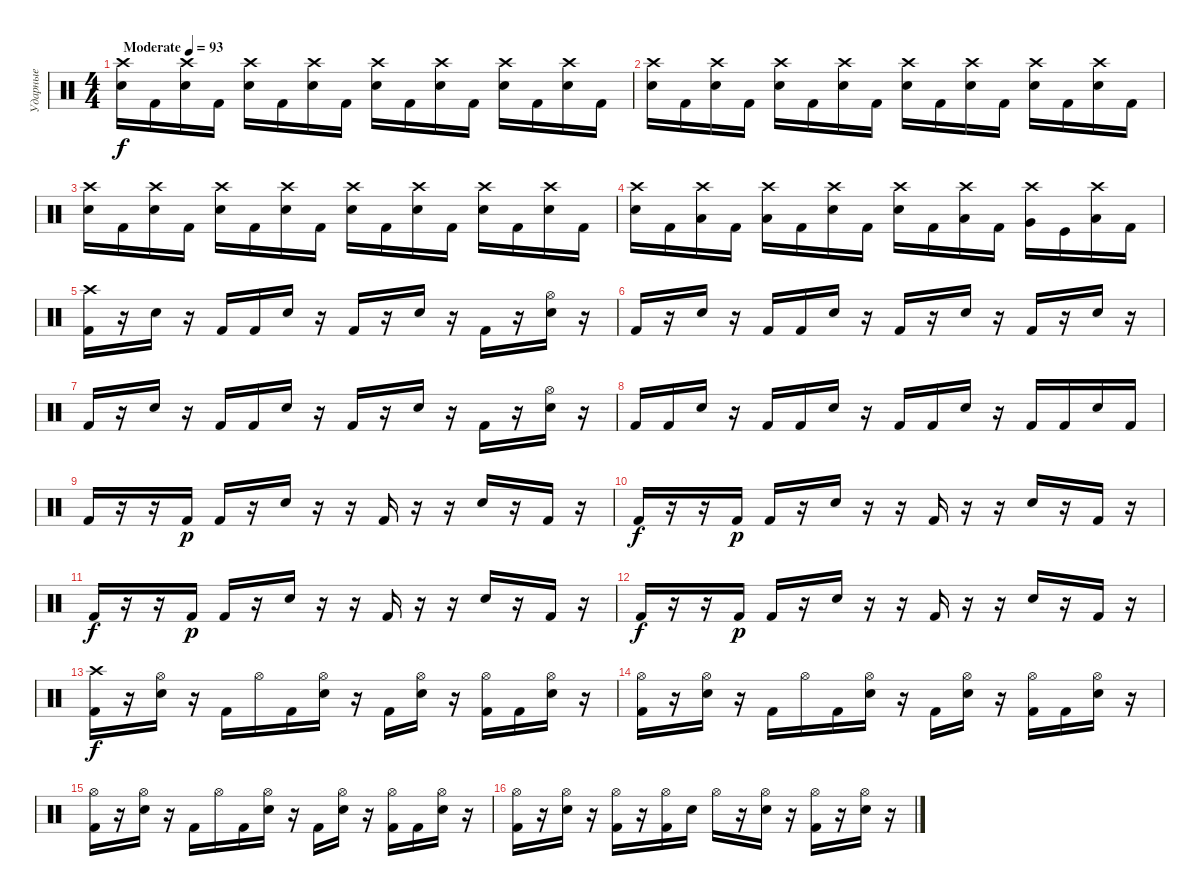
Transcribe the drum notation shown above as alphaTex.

\track ("Ударные" "Ударные") {instrument percussion}
\staff {score}
\articulation defaults
\ts (4 4)
\tempo (93 "Moderate")
\clef neutral
\ks c
("Crash high (hit)" "Snare (hit) 2").16{dy f} "Kick (hit) 2".16 ("Crash high (hit)" "Snare (hit) 2").16 "Kick (hit) 2".16 ("Crash high (hit)" "Snare (hit) 2").16 "Kick (hit) 2".16 ("Crash high (hit)" "Snare (hit) 2").16 "Kick (hit) 2".16 ("Crash high (hit)" "Snare (hit) 2").16 "Kick (hit) 2".16 ("Crash high (hit)" "Snare (hit) 2").16 "Kick (hit) 2".16 ("Crash high (hit)" "Snare (hit) 2").16 "Kick (hit) 2".16 ("Crash high (hit)" "Snare (hit) 2").16 "Kick (hit) 2".16 |
("Crash high (hit)" "Snare (hit) 2").16 "Kick (hit) 2".16 ("Crash high (hit)" "Snare (hit) 2").16 "Kick (hit) 2".16 ("Crash high (hit)" "Snare (hit) 2").16 "Kick (hit) 2".16 ("Crash high (hit)" "Snare (hit) 2").16 "Kick (hit) 2".16 ("Crash high (hit)" "Snare (hit) 2").16 "Kick (hit) 2".16 ("Crash high (hit)" "Snare (hit) 2").16 "Kick (hit) 2".16 ("Crash high (hit)" "Snare (hit) 2").16 "Kick (hit) 2".16 ("Crash high (hit)" "Snare (hit) 2").16 "Kick (hit) 2".16 |
("Crash high (hit)" "Snare (hit) 2").16 "Kick (hit) 2".16 ("Crash high (hit)" "Snare (hit) 2").16 "Kick (hit) 2".16 ("Crash high (hit)" "Snare (hit) 2").16 "Kick (hit) 2".16 ("Crash high (hit)" "Snare (hit) 2").16 "Kick (hit) 2".16 ("Crash high (hit)" "Snare (hit) 2").16 "Kick (hit) 2".16 ("Crash high (hit)" "Snare (hit) 2").16 "Kick (hit) 2".16 ("Crash high (hit)" "Snare (hit) 2").16 "Kick (hit) 2".16 ("Crash high (hit)" "Snare (hit) 2").16 "Kick (hit) 2".16 |
("Crash high (hit)" "Snare (hit) 2").16 "Kick (hit) 2".16 ("Crash high (hit)" "Low Tom (hit)").16 "Kick (hit) 2".16 ("Crash high (hit)" "Low Floor Tom (hit)").16 "Kick (hit) 2".16 ("Crash high (hit)" "Snare (hit) 2").16 "Kick (hit) 2".16 ("Crash high (hit)" "Snare (hit) 2").16 "Kick (hit) 2".16 ("Crash high (hit)" "Low Tom (hit)").16 "Kick (hit) 2".16 ("Crash high (hit)" "Very Low Tom (hit)").16 "Kick (hit)".16 ("Crash high (hit)" "Low Floor Tom (hit)").16 "Kick (hit) 2".16 |
("Crash high (hit)" "Kick (hit) 2").16 r.16 "Snare (hit) 2".16 r.16 "Kick (hit) 2".16 "Kick (hit) 2".16 "Snare (hit) 2".16 r.16 "Kick (hit) 2".16 r.16 "Snare (hit) 2".16 r.16 "Kick (hit) 2".16 r.16 ("Hi-Hat (open)" "Snare (hit) 2").16 r.16 |
"Kick (hit) 2".16 r.16 "Snare (hit) 2".16 r.16 "Kick (hit) 2".16 "Kick (hit) 2".16 "Snare (hit) 2".16 r.16 "Kick (hit) 2".16 r.16 "Snare (hit) 2".16 r.16 "Kick (hit) 2".16 r.16 "Snare (hit) 2".16 r.16 |
"Kick (hit) 2".16 r.16 "Snare (hit) 2".16 r.16 "Kick (hit) 2".16 "Kick (hit) 2".16 "Snare (hit) 2".16 r.16 "Kick (hit) 2".16 r.16 "Snare (hit) 2".16 r.16 "Kick (hit) 2".16 r.16 ("Hi-Hat (open)" "Snare (hit) 2").16 r.16 |
"Kick (hit) 2".16 "Kick (hit) 2".16 "Snare (hit) 2".16 r.16 "Kick (hit) 2".16 "Kick (hit) 2".16 "Snare (hit) 2".16 r.16 "Kick (hit) 2".16 "Kick (hit) 2".16 "Snare (hit) 2".16 r.16 "Kick (hit) 2".16 "Kick (hit) 2".16 "Snare (hit) 2".16 "Kick (hit) 2".16 |
"Kick (hit) 2".16 r.16 r.16 "Kick (hit) 2".16{dy p} "Kick (hit) 2".16 r.16 "Snare (hit) 2".16 r.16 r.16 "Kick (hit) 2".16 r.16 r.16 "Snare (hit) 2".16 r.16 "Kick (hit) 2".16 r.16 |
"Kick (hit) 2".16{dy f} r.16 r.16 "Kick (hit) 2".16{dy p} "Kick (hit) 2".16 r.16 "Snare (hit) 2".16 r.16 r.16 "Kick (hit) 2".16 r.16 r.16 "Snare (hit) 2".16 r.16 "Kick (hit) 2".16 r.16 |
"Kick (hit) 2".16{dy f} r.16 r.16 "Kick (hit) 2".16{dy p} "Kick (hit) 2".16 r.16 "Snare (hit) 2".16 r.16 r.16 "Kick (hit) 2".16 r.16 r.16 "Snare (hit) 2".16 r.16 "Kick (hit) 2".16 r.16 |
"Kick (hit) 2".16{dy f} r.16 r.16 "Kick (hit) 2".16{dy p} "Kick (hit) 2".16 r.16 "Snare (hit) 2".16 r.16 r.16 "Kick (hit) 2".16 r.16 r.16 "Snare (hit) 2".16 r.16 "Kick (hit) 2".16 r.16 |
("Crash high (hit)" "Kick (hit) 2").16{dy f} r.16 ("Hi-Hat (open)" "Snare (hit) 2").16 r.16 "Kick (hit) 2".16 "Hi-Hat (open)".16 "Kick (hit) 2".16 ("Hi-Hat (open)" "Snare (hit) 2").16 r.16 "Kick (hit) 2".16 ("Hi-Hat (open)" "Snare (hit) 2").16 r.16 ("Hi-Hat (open)" "Kick (hit) 2").16 "Kick (hit) 2".16 ("Hi-Hat (open)" "Snare (hit) 2").16 r.16 |
("Hi-Hat (open)" "Kick (hit) 2").16 r.16 ("Hi-Hat (open)" "Snare (hit) 2").16 r.16 "Kick (hit) 2".16 "Hi-Hat (open)".16 "Kick (hit) 2".16 ("Hi-Hat (open)" "Snare (hit) 2").16 r.16 "Kick (hit) 2".16 ("Hi-Hat (open)" "Snare (hit) 2").16 r.16 ("Hi-Hat (open)" "Kick (hit) 2").16 "Kick (hit) 2".16 ("Hi-Hat (open)" "Snare (hit) 2").16 r.16 |
("Hi-Hat (open)" "Kick (hit) 2").16 r.16 ("Hi-Hat (open)" "Snare (hit) 2").16 r.16 "Kick (hit) 2".16 "Hi-Hat (open)".16 "Kick (hit) 2".16 ("Hi-Hat (open)" "Snare (hit) 2").16 r.16 "Kick (hit) 2".16 ("Hi-Hat (open)" "Snare (hit) 2").16 r.16 ("Hi-Hat (open)" "Kick (hit) 2").16 "Kick (hit) 2".16 ("Hi-Hat (open)" "Snare (hit) 2").16 r.16 |
("Hi-Hat (open)" "Kick (hit) 2").16 r.16 ("Hi-Hat (open)" "Snare (hit) 2").16 r.16 ("Hi-Hat (open)" "Kick (hit) 2").16 r.16 ("Hi-Hat (open)" "Kick (hit) 2").16 "Snare (hit) 2".16 "Hi-Hat (open)".16 r.16 ("Hi-Hat (open)" "Snare (hit) 2").16 r.16 ("Hi-Hat (open)" "Kick (hit) 2").16 r.16 ("Hi-Hat (open)" "Snare (hit) 2").16 r.16
